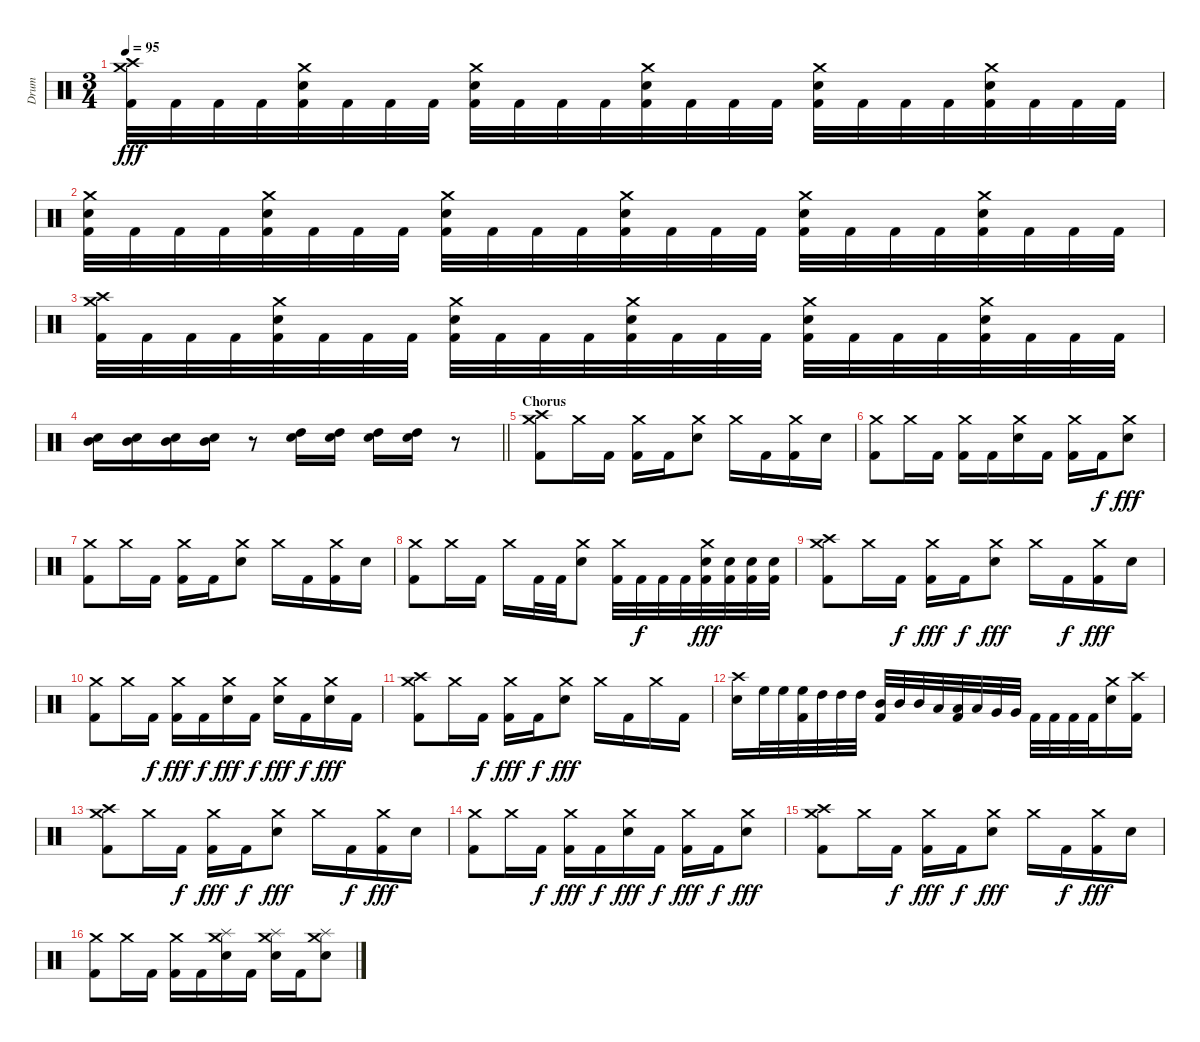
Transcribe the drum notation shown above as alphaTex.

\track ("Drum" "Drum") {instrument percussion}
\staff {score}
\articulation defaults
\ts (3 4)
\tempo 95
\clef neutral
\ks c
("Crash medium (hit)" "Crash high (hit)" "Kick (hit) 2").32{dy fff} "Kick (hit) 2".32 "Kick (hit) 2".32 "Kick (hit) 2".32 ("Crash medium (hit)" "Electric Snare (hit)" "Kick (hit) 2").32 "Kick (hit) 2".32 "Kick (hit) 2".32 "Kick (hit) 2".32 ("Crash medium (hit)" "Electric Snare (hit)" "Kick (hit) 2").32 "Kick (hit) 2".32 "Kick (hit) 2".32 "Kick (hit) 2".32 ("Crash medium (hit)" "Electric Snare (hit)" "Kick (hit) 2").32 "Kick (hit) 2".32 "Kick (hit) 2".32 "Kick (hit) 2".32 ("Crash medium (hit)" "Electric Snare (hit)" "Kick (hit) 2").32 "Kick (hit) 2".32 "Kick (hit) 2".32 "Kick (hit) 2".32 ("Crash medium (hit)" "Electric Snare (hit)" "Kick (hit) 2").32 "Kick (hit) 2".32 "Kick (hit) 2".32 "Kick (hit) 2".32 |
("Crash medium (hit)" "Electric Snare (hit)" "Kick (hit) 2").32 "Kick (hit) 2".32 "Kick (hit) 2".32 "Kick (hit) 2".32 ("Crash medium (hit)" "Electric Snare (hit)" "Kick (hit) 2").32 "Kick (hit) 2".32 "Kick (hit) 2".32 "Kick (hit) 2".32 ("Crash medium (hit)" "Electric Snare (hit)" "Kick (hit) 2").32 "Kick (hit) 2".32 "Kick (hit) 2".32 "Kick (hit) 2".32 ("Crash medium (hit)" "Electric Snare (hit)" "Kick (hit) 2").32 "Kick (hit) 2".32 "Kick (hit) 2".32 "Kick (hit) 2".32 ("Crash medium (hit)" "Electric Snare (hit)" "Kick (hit) 2").32 "Kick (hit) 2".32 "Kick (hit) 2".32 "Kick (hit) 2".32 ("Crash medium (hit)" "Electric Snare (hit)" "Kick (hit) 2").32 "Kick (hit) 2".32 "Kick (hit) 2".32 "Kick (hit) 2".32 |
("Crash medium (hit)" "Crash high (hit)" "Kick (hit) 2").32 "Kick (hit) 2".32 "Kick (hit) 2".32 "Kick (hit) 2".32 ("Crash medium (hit)" "Electric Snare (hit)" "Kick (hit) 2").32 "Kick (hit) 2".32 "Kick (hit) 2".32 "Kick (hit) 2".32 ("Crash medium (hit)" "Electric Snare (hit)" "Kick (hit) 2").32 "Kick (hit) 2".32 "Kick (hit) 2".32 "Kick (hit) 2".32 ("Crash medium (hit)" "Electric Snare (hit)" "Kick (hit) 2").32 "Kick (hit) 2".32 "Kick (hit) 2".32 "Kick (hit) 2".32 ("Crash medium (hit)" "Electric Snare (hit)" "Kick (hit) 2").32 "Kick (hit) 2".32 "Kick (hit) 2".32 "Kick (hit) 2".32 ("Crash medium (hit)" "Electric Snare (hit)" "Kick (hit) 2").32 "Kick (hit) 2".32 "Kick (hit) 2".32 "Kick (hit) 2".32 |
\barLineRight lightlight
("Electric Snare (hit)" "Mid Tom (hit)").16 ("Electric Snare (hit)" "Mid Tom (hit)").16 ("Electric Snare (hit)" "Mid Tom (hit)").16 ("Electric Snare (hit)" "Mid Tom (hit)").16 r.8 ("Electric Snare (hit)" "High Tom (hit)").16 ("Electric Snare (hit)" "High Tom (hit)").16 ("Electric Snare (hit)" "High Tom (hit)").16 ("Electric Snare (hit)" "High Tom (hit)").16 r.8 |
\section ("" "Chorus")
("Crash medium (hit)" "Crash high (hit)" "Kick (hit) 2").8 "Crash medium (hit)".16 "Kick (hit) 2".16 ("Crash medium (hit)" "Kick (hit) 2").16 "Kick (hit) 2".16 ("Crash medium (hit)" "Electric Snare (hit)").8 "Crash medium (hit)".16 "Kick (hit) 2".16 ("Crash medium (hit)" "Kick (hit) 2").16 "Electric Snare (hit)".16 |
("Crash medium (hit)" "Kick (hit) 2").8 "Crash medium (hit)".16 "Kick (hit) 2".16 ("Crash medium (hit)" "Kick (hit) 2").16 "Kick (hit) 2".16 ("Crash medium (hit)" "Electric Snare (hit)").16 "Kick (hit) 2".16 ("Crash medium (hit)" "Kick (hit) 2").16 "Kick (hit) 2".16{dy f} ("Crash medium (hit)" "Electric Snare (hit)").8{dy fff} |
("Crash medium (hit)" "Kick (hit) 2").8 "Crash medium (hit)".16 "Kick (hit) 2".16 ("Crash medium (hit)" "Kick (hit) 2").16 "Kick (hit) 2".16 ("Crash medium (hit)" "Electric Snare (hit)").8 "Crash medium (hit)".16 "Kick (hit) 2".16 ("Crash medium (hit)" "Kick (hit) 2").16 "Electric Snare (hit)".16 |
("Crash medium (hit)" "Kick (hit) 2").8 "Crash medium (hit)".16 "Kick (hit) 2".16 "Crash medium (hit)".16 "Kick (hit) 2".32 "Kick (hit) 2".32 ("Crash medium (hit)" "Electric Snare (hit)").8 ("Crash medium (hit)" "Kick (hit) 2").32 "Kick (hit) 2".32{dy f} "Kick (hit) 2".32 "Kick (hit) 2".32 ("Crash medium (hit)" "Electric Snare (hit)" "Kick (hit) 2").32{dy fff} ("Electric Snare (hit)" "Kick (hit) 2").32 ("Electric Snare (hit)" "Kick (hit) 2").32 ("Electric Snare (hit)" "Kick (hit) 2").32 |
("Crash medium (hit)" "Crash high (hit)" "Kick (hit) 2").8 "Crash medium (hit)".16 "Kick (hit) 2".16{dy f} ("Crash medium (hit)" "Kick (hit) 2").16{dy fff} "Kick (hit) 2".16{dy f} ("Crash medium (hit)" "Electric Snare (hit)").8{dy fff} "Crash medium (hit)".16 "Kick (hit) 2".16{dy f} ("Crash medium (hit)" "Kick (hit) 2").16{dy fff} "Electric Snare (hit)".16 |
("Crash medium (hit)" "Kick (hit) 2").8 "Crash medium (hit)".16 "Kick (hit) 2".16{dy f} ("Crash medium (hit)" "Kick (hit) 2").16{dy fff} "Kick (hit) 2".16{dy f} ("Crash medium (hit)" "Electric Snare (hit)").16{dy fff} "Kick (hit) 2".16{dy f} ("Crash medium (hit)" "Electric Snare (hit)").16{dy fff} "Kick (hit) 2".16{dy f} ("Crash medium (hit)" "Electric Snare (hit)").16{dy fff} "Kick (hit) 2".16 |
("Crash high (hit)" "Crash medium (hit)" "Kick (hit) 2").8 "Crash medium (hit)".16 "Kick (hit) 2".16{dy f} ("Crash medium (hit)" "Kick (hit) 2").16{dy fff} "Kick (hit) 2".16{dy f} ("Crash medium (hit)" "Electric Snare (hit)").8{dy fff} "Crash medium (hit)".16 "Kick (hit) 2".16 "Crash medium (hit)".16 "Kick (hit) 2".16 |
("Crash high (hit)" "Electric Snare (hit)").16 "High Floor Tom (hit)".32 "High Floor Tom (hit)".32 ("High Floor Tom (hit)" "Kick (hit) 2").32 "High Tom (hit)".32 "High Tom (hit)".32 "High Tom (hit)".32 ("Mid Tom (hit)" "Kick (hit) 2").32 "Mid Tom (hit)".32 "Mid Tom (hit)".32 "Low Tom (hit)".32 ("Low Tom (hit)" "Kick (hit) 2").32 "Low Tom (hit)".32 "Very Low Tom (hit)".32 "Very Low Tom (hit)".32 "Kick (hit) 2".32 "Kick (hit) 2".32 "Kick (hit) 2".32 "Kick (hit) 2".32 ("Crash medium (hit)" "Electric Snare (hit)").16 ("Crash high (hit)" "Kick (hit) 2").16 |
("Crash medium (hit)" "Crash high (hit)" "Kick (hit) 2").8 "Crash medium (hit)".16 "Kick (hit) 2".16{dy f} ("Crash medium (hit)" "Kick (hit) 2").16{dy fff} "Kick (hit) 2".16{dy f} ("Crash medium (hit)" "Electric Snare (hit)").8{dy fff} "Crash medium (hit)".16 "Kick (hit) 2".16{dy f} ("Crash medium (hit)" "Kick (hit) 2").16{dy fff} "Electric Snare (hit)".16 |
("Crash medium (hit)" "Kick (hit) 2").8 "Crash medium (hit)".16 "Kick (hit) 2".16{dy f} ("Crash medium (hit)" "Kick (hit) 2").16{dy fff} "Kick (hit) 2".16{dy f} ("Crash medium (hit)" "Electric Snare (hit)").16{dy fff} "Kick (hit) 2".16{dy f} ("Crash medium (hit)" "Kick (hit) 2").16{dy fff} "Kick (hit) 2".16{dy f} ("Crash medium (hit)" "Electric Snare (hit)").8{dy fff} |
("Crash high (hit)" "Crash medium (hit)" "Kick (hit) 2").8 "Crash medium (hit)".16 "Kick (hit) 2".16{dy f} ("Crash medium (hit)" "Kick (hit) 2").16{dy fff} "Kick (hit) 2".16{dy f} ("Crash medium (hit)" "Electric Snare (hit)").8{dy fff} "Crash medium (hit)".16 "Kick (hit) 2".16{dy f} ("Crash medium (hit)" "Kick (hit) 2").16{dy fff} "Electric Snare (hit)".16 |
("Crash medium (hit)" "Kick (hit) 2").8 "Crash medium (hit)".16 "Kick (hit) 2".16 ("Crash medium (hit)" "Kick (hit) 2").16 "Kick (hit) 2".16 ("Splash (hit)" "Crash medium (hit)" "Electric Snare (hit)").16 "Kick (hit) 2".16 ("Splash (hit)" "Crash medium (hit)" "Electric Snare (hit)").16 "Kick (hit) 2".16 ("Splash (hit)" "Crash medium (hit)" "Electric Snare (hit)").8
